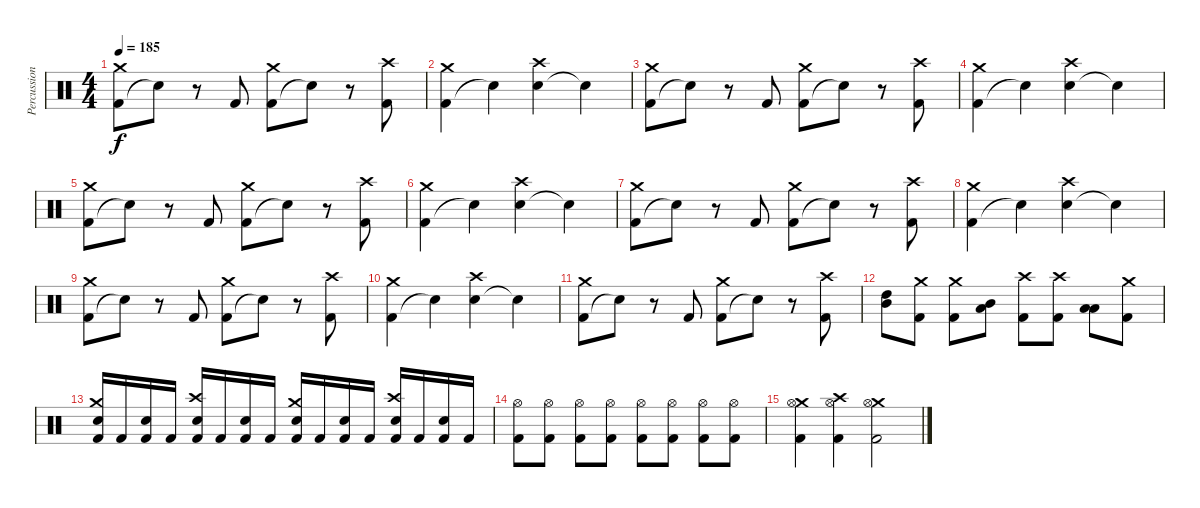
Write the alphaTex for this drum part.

\track ("Percussion" "Percussion") {instrument percussion}
\staff {score}
\articulation defaults
\ts (4 4)
\tempo 185
\clef neutral
\ks c
("Kick (hit) 2" "Crash medium (hit)").8{dy f} "Snare (hit)"{t}.8 r.8 "Kick (hit) 2".8 ("Kick (hit) 2" "Crash medium (hit)").8 "Snare (hit)"{t}.8 r.8 ("Kick (hit) 2" "Crash high (hit)").8 |
("Kick (hit) 2" "Crash medium (hit)").4 "Snare (hit)"{t}.4 ("Electric Snare (hit)" "Crash high (hit)").4 "Snare (hit)"{t}.4 |
("Kick (hit) 2" "Crash medium (hit)").8 "Snare (hit)"{t}.8 r.8 "Kick (hit) 2".8 ("Kick (hit) 2" "Crash medium (hit)").8 "Snare (hit)"{t}.8 r.8 ("Kick (hit) 2" "Crash high (hit)").8 |
("Kick (hit) 2" "Crash medium (hit)").4 "Snare (hit)"{t}.4 ("Electric Snare (hit)" "Crash high (hit)").4 "Snare (hit)"{t}.4 |
("Kick (hit) 2" "Crash medium (hit)").8 "Snare (hit)"{t}.8 r.8 "Kick (hit) 2".8 ("Kick (hit) 2" "Crash medium (hit)").8 "Snare (hit)"{t}.8 r.8 ("Kick (hit) 2" "Crash high (hit)").8 |
("Kick (hit) 2" "Crash medium (hit)").4 "Snare (hit)"{t}.4 ("Electric Snare (hit)" "Crash high (hit)").4 "Snare (hit)"{t}.4 |
("Kick (hit) 2" "Crash medium (hit)").8 "Snare (hit)"{t}.8 r.8 "Kick (hit) 2".8 ("Kick (hit) 2" "Crash medium (hit)").8 "Snare (hit)"{t}.8 r.8 ("Kick (hit) 2" "Crash high (hit)").8 |
("Kick (hit) 2" "Crash medium (hit)").4 "Snare (hit)"{t}.4 ("Electric Snare (hit)" "Crash high (hit)").4 "Snare (hit)"{t}.4 |
("Kick (hit) 2" "Crash medium (hit)").8 "Snare (hit)"{t}.8 r.8 "Kick (hit) 2".8 ("Kick (hit) 2" "Crash medium (hit)").8 "Snare (hit)"{t}.8 r.8 ("Kick (hit) 2" "Crash high (hit)").8 |
("Kick (hit) 2" "Crash medium (hit)").4 "Snare (hit)"{t}.4 ("Electric Snare (hit)" "Crash high (hit)").4 "Snare (hit)"{t}.4 |
("Kick (hit) 2" "Crash medium (hit)").8 "Snare (hit)"{t}.8 r.8 "Kick (hit) 2".8 ("Kick (hit) 2" "Crash medium (hit)").8 "Snare (hit)"{t}.8 r.8 ("Kick (hit) 2" "Crash high (hit)").8 |
("Mid Tom (hit)" "High Tom (hit)").8 ("Kick (hit) 2" "Crash medium (hit)").8 ("Kick (hit) 2" "Crash medium (hit)").8 ("Low Tom (hit)" "Mid Tom (hit)").8 ("Kick (hit) 2" "Crash high (hit)").8 ("Kick (hit) 2" "Crash high (hit)").8 ("Low Floor Tom (hit)" "Low Tom (hit)").8 ("Kick (hit) 2" "Crash medium (hit)").8 |
("Kick (hit) 2" "Electric Snare (hit)" "Crash medium (hit)").16 "Kick (hit) 2".16 ("Kick (hit) 2" "Electric Snare (hit)").16 "Kick (hit) 2".16 ("Kick (hit) 2" "Electric Snare (hit)" "Crash high (hit)").16 "Kick (hit) 2".16 ("Kick (hit) 2" "Electric Snare (hit)").16 "Kick (hit) 2".16 ("Kick (hit) 2" "Electric Snare (hit)" "Crash medium (hit)").16 "Kick (hit) 2".16 ("Kick (hit) 2" "Electric Snare (hit)").16 "Kick (hit) 2".16 ("Kick (hit) 2" "Electric Snare (hit)" "Crash high (hit)").16 "Kick (hit) 2".16 ("Kick (hit) 2" "Electric Snare (hit)").16 "Kick (hit) 2".16 |
("Kick (hit) 2" "Hi-Hat (open)").8 ("Kick (hit) 2" "Hi-Hat (open)").8 ("Kick (hit) 2" "Hi-Hat (open)").8 ("Kick (hit) 2" "Hi-Hat (open)").8 ("Kick (hit) 2" "Hi-Hat (open)").8 ("Kick (hit) 2" "Hi-Hat (open)").8 ("Kick (hit) 2" "Hi-Hat (open)").8 ("Kick (hit) 2" "Hi-Hat (open)").8 |
("Kick (hit) 2" "Crash medium (hit)" "Hi-Hat (open)").4 ("Kick (hit) 2" "Crash high (hit)" "Hi-Hat (open)").4 ("Kick (hit) 2" "Crash medium (hit)" "Hi-Hat (open)").2
